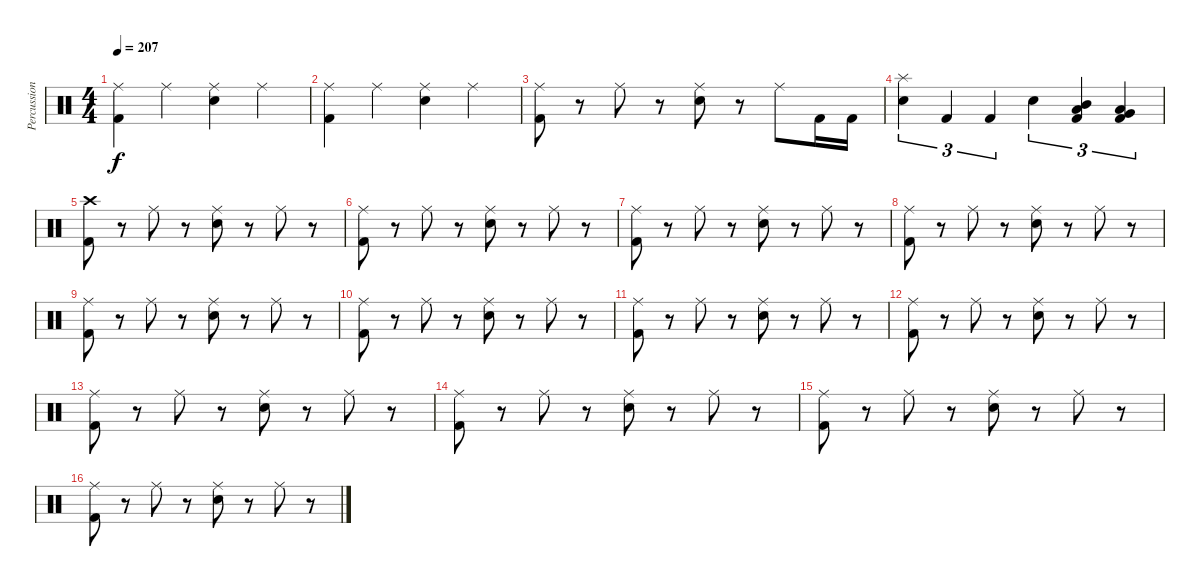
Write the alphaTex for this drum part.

\track ("Percussion" "Percussion") {instrument percussion}
\staff {score}
\articulation defaults
\ts (4 4)
\tempo 207
\clef neutral
\ks c
("Ride (middle)" "Kick (hit) 2").4{dy f} "Ride (middle)".4 ("Ride (middle)" "Snare (hit) 2").4 "Ride (middle)".4 |
("Ride (middle)" "Kick (hit) 2").4 "Ride (middle)".4 ("Ride (middle)" "Snare (hit) 2").4 "Ride (middle)".4 |
("Ride (middle)" "Kick (hit) 2").8 r.8 "Ride (middle)".8 r.8 ("Ride (middle)" "Snare (hit) 2").8 r.8 "Ride (middle)".8 "Kick (hit) 2".16 "Kick (hit) 2".16 |
("Splash (hit)" "Snare (hit) 2").4{tu (3 2)} "Kick (hit) 2".4{tu (3 2)} "Kick (hit) 2".4{tu (3 2)} "Snare (hit) 2".4{tu (3 2)} ("Mid Tom (hit)" "Low Tom (hit)" "Kick (hit) 2").4{tu (3 2)} ("Low Tom (hit)" "Very Low Tom (hit)" "Kick (hit) 2").4{tu (3 2)} |
("Crash high (hit)" "Kick (hit) 2").8 r.8 "Ride (middle)".8 r.8 ("Ride (middle)" "Snare (hit) 2").8 r.8 "Ride (middle)".8 r.8 |
("Ride (middle)" "Kick (hit) 2").8 r.8 "Ride (middle)".8 r.8 ("Ride (middle)" "Snare (hit) 2").8 r.8 "Ride (middle)".8 r.8 |
("Ride (middle)" "Kick (hit) 2").8 r.8 "Ride (middle)".8 r.8 ("Ride (middle)" "Snare (hit) 2").8 r.8 "Ride (middle)".8 r.8 |
("Ride (middle)" "Kick (hit) 2").8 r.8 "Ride (middle)".8 r.8 ("Ride (middle)" "Snare (hit) 2").8 r.8 "Ride (middle)".8 r.8 |
("Ride (middle)" "Kick (hit) 2").8 r.8 "Ride (middle)".8 r.8 ("Ride (middle)" "Snare (hit) 2").8 r.8 "Ride (middle)".8 r.8 |
("Ride (middle)" "Kick (hit) 2").8 r.8 "Ride (middle)".8 r.8 ("Ride (middle)" "Snare (hit) 2").8 r.8 "Ride (middle)".8 r.8 |
("Ride (middle)" "Kick (hit) 2").8 r.8 "Ride (middle)".8 r.8 ("Ride (middle)" "Snare (hit) 2").8 r.8 "Ride (middle)".8 r.8 |
("Ride (middle)" "Kick (hit) 2").8 r.8 "Ride (middle)".8 r.8 ("Ride (middle)" "Snare (hit) 2").8 r.8 "Ride (middle)".8 r.8 |
("Ride (middle)" "Kick (hit) 2").8 r.8 "Ride (middle)".8 r.8 ("Ride (middle)" "Snare (hit) 2").8 r.8 "Ride (middle)".8 r.8 |
("Ride (middle)" "Kick (hit) 2").8 r.8 "Ride (middle)".8 r.8 ("Ride (middle)" "Snare (hit) 2").8 r.8 "Ride (middle)".8 r.8 |
("Ride (middle)" "Kick (hit) 2").8 r.8 "Ride (middle)".8 r.8 ("Ride (middle)" "Snare (hit) 2").8 r.8 "Ride (middle)".8 r.8 |
("Ride (middle)" "Kick (hit) 2").8 r.8 "Ride (middle)".8 r.8 ("Ride (middle)" "Snare (hit) 2").8 r.8 "Ride (middle)".8 r.8
